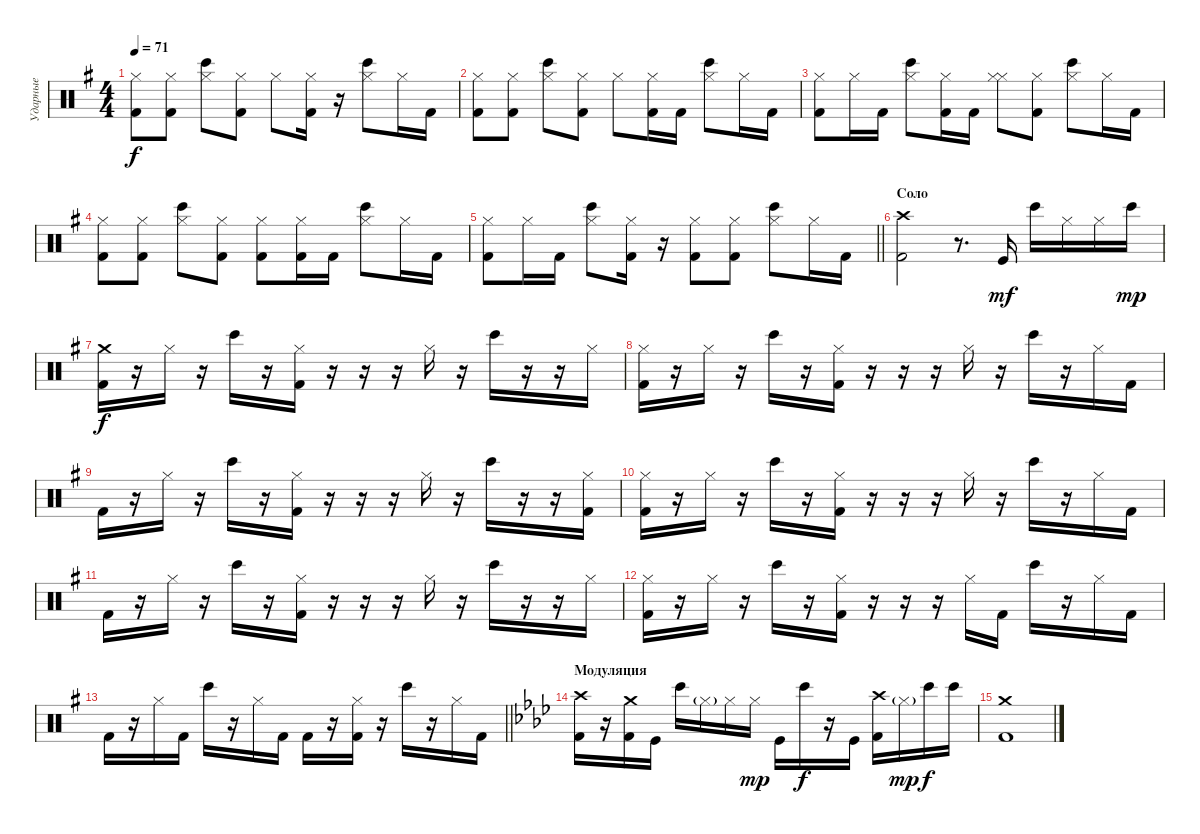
\track ("Ударные" "Ударные") {instrument percussion}
\staff {score}
\articulation defaults
\ts (4 4)
\tempo 71
\clef neutral
\ks eminor
("Hi-Hat (closed)" "Kick (hit) 2").8{dy f} ("Hi-Hat (closed)" "Kick (hit) 2").8 ("Hi-Hat (closed)" "Bongo High (hit)").8 ("Hi-Hat (closed)" "Kick (hit) 2").8 "Hi-Hat (closed)".8 ("Hi-Hat (closed)" "Kick (hit) 2").16 r.16 ("Hi-Hat (closed)" "Bongo High (hit)").8 "Hi-Hat (closed)".16 "Kick (hit) 2".16 |
("Hi-Hat (closed)" "Kick (hit) 2").8 ("Hi-Hat (closed)" "Kick (hit) 2").8 ("Hi-Hat (closed)" "Bongo High (hit)").8 ("Hi-Hat (closed)" "Kick (hit) 2").8 "Hi-Hat (closed)".8 ("Hi-Hat (closed)" "Kick (hit) 2").16 "Kick (hit) 2".16 ("Hi-Hat (closed)" "Bongo High (hit)").8 "Hi-Hat (closed)".16 "Kick (hit) 2".16 |
("Hi-Hat (closed)" "Kick (hit) 2").8 "Hi-Hat (closed)".16 "Kick (hit) 2".16 ("Hi-Hat (closed)" "Bongo High (hit)").8 ("Hi-Hat (closed)" "Kick (hit) 2").16 "Kick (hit) 2".16 ("Hi-Hat (closed)" "Hi-Hat (closed)").8 ("Hi-Hat (closed)" "Kick (hit) 2").8 ("Hi-Hat (closed)" "Bongo High (hit)").8 "Hi-Hat (closed)".16 "Kick (hit) 2".16 |
("Hi-Hat (closed)" "Kick (hit) 2").8 ("Hi-Hat (closed)" "Kick (hit) 2").8 ("Hi-Hat (closed)" "Bongo High (hit)").8 ("Hi-Hat (closed)" "Kick (hit) 2").8 ("Hi-Hat (closed)" "Kick (hit) 2").8 ("Hi-Hat (closed)" "Kick (hit) 2").16 "Kick (hit) 2".16 ("Hi-Hat (closed)" "Bongo High (hit)").8 "Hi-Hat (closed)".16 "Kick (hit) 2".16 |
\barLineRight lightlight
("Hi-Hat (closed)" "Kick (hit) 2").8 "Hi-Hat (closed)".16 "Kick (hit) 2".16 ("Hi-Hat (closed)" "Bongo High (hit)").8 ("Hi-Hat (closed)" "Kick (hit) 2").16 r.16 ("Hi-Hat (closed)" "Kick (hit) 2").8 ("Hi-Hat (closed)" "Kick (hit) 2").8 ("Hi-Hat (closed)" "Bongo High (hit)").8 "Hi-Hat (closed)".16 "Kick (hit) 2".16 |
\section ("" "Соло")
("Crash high (hit)" "Kick (hit) 2").2 r.8{d} "Kick (hit)".16{dy mf} "Bongo High (hit)".16 "Hi-Hat (closed)".16 "Hi-Hat (closed)".16 "Bongo High (hit)".16{dy mp} |
("Crash medium (hit)" "Kick (hit) 2").16{dy f volume 12} r.16 "Hi-Hat (closed)".16 r.16 "Bongo High (hit)".16 r.16 ("Hi-Hat (closed)" "Kick (hit) 2").16 r.16 r.16 r.16 "Hi-Hat (closed)".16 r.16 "Bongo High (hit)".16 r.16 r.16 "Hi-Hat (closed)".16 |
("Hi-Hat (closed)" "Kick (hit) 2").16 r.16 "Hi-Hat (closed)".16 r.16 "Bongo High (hit)".16 r.16 ("Hi-Hat (closed)" "Kick (hit) 2").16 r.16 r.16 r.16 "Hi-Hat (closed)".16 r.16 "Bongo High (hit)".16 r.16 "Hi-Hat (closed)".16 "Kick (hit) 2".16 |
"Kick (hit) 2".16 r.16 "Hi-Hat (closed)".16 r.16 "Bongo High (hit)".16 r.16 ("Hi-Hat (closed)" "Kick (hit) 2").16 r.16 r.16 r.16 "Hi-Hat (closed)".16 r.16 "Bongo High (hit)".16 r.16 r.16 ("Hi-Hat (closed)" "Kick (hit) 2").16 |
("Hi-Hat (closed)" "Kick (hit) 2").16 r.16 "Hi-Hat (closed)".16 r.16 "Bongo High (hit)".16 r.16 ("Hi-Hat (closed)" "Kick (hit) 2").16 r.16 r.16 r.16 "Hi-Hat (closed)".16 r.16 "Bongo High (hit)".16 r.16 "Hi-Hat (closed)".16 "Kick (hit) 2".16 |
"Kick (hit) 2".16 r.16 "Hi-Hat (closed)".16 r.16 "Bongo High (hit)".16 r.16 ("Hi-Hat (closed)" "Kick (hit) 2").16 r.16 r.16 r.16 "Hi-Hat (closed)".16 r.16 "Bongo High (hit)".16 r.16 r.16 "Hi-Hat (closed)".16 |
("Hi-Hat (closed)" "Kick (hit) 2").16 r.16 "Hi-Hat (closed)".16 r.16 "Bongo High (hit)".16 r.16 ("Hi-Hat (closed)" "Kick (hit) 2").16 r.16 r.16 r.16 "Hi-Hat (closed)".16 "Kick (hit) 2".16 "Bongo High (hit)".16 r.16 "Hi-Hat (closed)".16 "Kick (hit) 2".16 |
\barLineRight lightlight "Kick (hit) 2".16
r.16 "Hi-Hat (closed)".16 "Kick (hit) 2".16 "Bongo High (hit)".16 r.16 "Hi-Hat (closed)".16 "Kick (hit) 2".16 "Kick (hit) 2".16 r.16 ("Hi-Hat (closed)" "Kick (hit) 2").16 r.16 "Bongo High (hit)".16 r.16 "Hi-Hat (closed)".16 "Kick (hit) 2".16 |
\section ("" "Модуляция")
\ks fminor
("Kick (hit) 2" "Crash high (hit)").16 r.16 ("Kick (hit) 2" "Crash medium (hit)").16 "Kick (hit)".16 "Bongo High (hit)".16 "Hi-Hat (closed)"{g}.16 "Hi-Hat (closed)".16 "Hi-Hat (closed)".16{dy mp} "Kick (hit)".16 "Bongo High (hit)".16{dy f} r.16 "Kick (hit)".16 ("Kick (hit) 2" "Crash high (hit)").16 "Hi-Hat (closed)"{g}.16{dy mp} "Bongo High (hit)".16{dy f} "Bongo High (hit)".16 |
("Crash medium (hit)" "Kick (hit) 2").1
